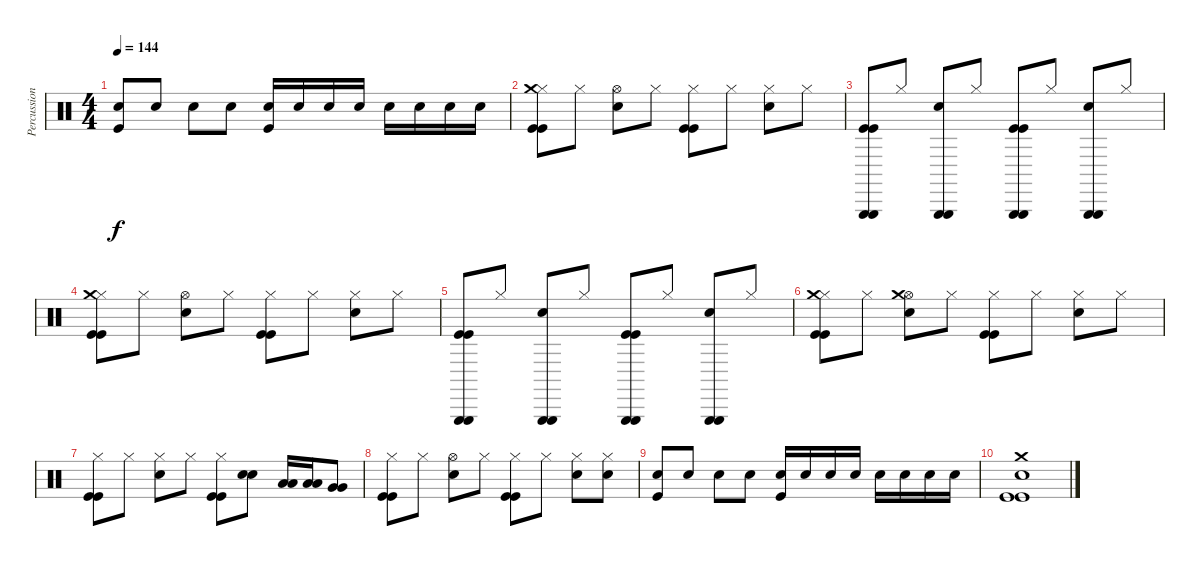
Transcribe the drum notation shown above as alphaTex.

\track ("Percussion" "Percussion") {instrument percussion}
\staff {score}
\articulation defaults
\ts (4 4)
\tempo 144
\clef neutral
\ks c
("Snare (hit) 2" "Kick (hit)").8{dy f} "Snare (hit) 2".8 "Snare (hit) 2".8 "Snare (hit) 2".8 ("Snare (hit) 2" "Kick (hit)").16 "Snare (hit) 2".16 "Snare (hit) 2".16 "Snare (hit) 2".16 "Snare (hit) 2".16 "Snare (hit) 2".16 "Snare (hit) 2".16 "Snare (hit) 2".16 |
("Hi-Hat (closed)" "Kick (hit)" "Kick (hit)" "Crash medium (hit)").8 "Hi-Hat (closed)".8 ("Hi-Hat (open)" "Snare (hit) 2").8 "Hi-Hat (closed)".8 ("Hi-Hat (closed)" "Kick (hit)" "Kick (hit)").8 "Hi-Hat (closed)".8 ("Hi-Hat (closed)" "Snare (hit) 2").8 "Hi-Hat (closed)".8 |
("Triangle (hit)" "Kick (hit)" "Kick (hit)" "Triangle (hit)").8 "Hi-Hat (closed)".8 ("Triangle (hit)" "Snare (hit) 2" "Triangle (hit)").8 "Hi-Hat (closed)".8 ("Triangle (hit)" "Kick (hit)" "Kick (hit)" "Triangle (hit)").8 "Hi-Hat (closed)".8 ("Triangle (hit)" "Snare (hit) 2" "Triangle (hit)").8 "Hi-Hat (closed)".8 |
("Hi-Hat (closed)" "Kick (hit)" "Kick (hit)" "Crash medium (hit)").8 "Hi-Hat (closed)".8 ("Hi-Hat (open)" "Snare (hit) 2").8 "Hi-Hat (closed)".8 ("Hi-Hat (closed)" "Kick (hit)" "Kick (hit)").8 "Hi-Hat (closed)".8 ("Hi-Hat (closed)" "Snare (hit) 2").8 "Hi-Hat (closed)".8 |
("Triangle (hit)" "Kick (hit)" "Kick (hit)" "Triangle (hit)").8 "Hi-Hat (closed)".8 ("Triangle (hit)" "Snare (hit) 2" "Triangle (hit)").8 "Hi-Hat (closed)".8 ("Triangle (hit)" "Kick (hit)" "Kick (hit)" "Triangle (hit)").8 "Hi-Hat (closed)".8 ("Triangle (hit)" "Snare (hit) 2" "Triangle (hit)").8 "Hi-Hat (closed)".8 |
("Hi-Hat (closed)" "Kick (hit)" "Kick (hit)" "Crash medium (hit)").8 "Hi-Hat (closed)".8 ("Hi-Hat (open)" "Snare (hit) 2" "Crash medium (hit)").8 "Hi-Hat (closed)".8 ("Hi-Hat (closed)" "Kick (hit)" "Kick (hit)").8 "Hi-Hat (closed)".8 ("Hi-Hat (closed)" "Snare (hit) 2").8 "Hi-Hat (closed)".8 |
("Hi-Hat (closed)" "Kick (hit)" "Kick (hit)").8 "Hi-Hat (closed)".8 ("Hi-Hat (closed)" "Snare (hit) 2").8 "Hi-Hat (closed)".8 ("Hi-Hat (closed)" "Kick (hit)" "Kick (hit)").8 ("Snare (hit) 2" "Snare (hit) 2").8 ("Low Floor Tom (hit)" "Low Floor Tom (hit)").16 ("Low Floor Tom (hit)" "Low Floor Tom (hit)").16 ("Very Low Tom (hit)" "Very Low Tom (hit)").8 |
("Hi-Hat (closed)" "Kick (hit)" "Kick (hit)").8 "Hi-Hat (closed)".8 ("Hi-Hat (open)" "Snare (hit) 2").8 "Hi-Hat (closed)".8 ("Hi-Hat (closed)" "Kick (hit)" "Kick (hit)").8 "Hi-Hat (closed)".8 ("Hi-Hat (closed)" "Snare (hit) 2").8 ("Hi-Hat (closed)" "Snare (hit) 2").8 |
("Snare (hit) 2" "Kick (hit)").8 "Snare (hit) 2".8 "Snare (hit) 2".8 "Snare (hit) 2".8 ("Snare (hit) 2" "Kick (hit)").16 "Snare (hit) 2".16 "Snare (hit) 2".16 "Snare (hit) 2".16 "Snare (hit) 2".16 "Snare (hit) 2".16 "Snare (hit) 2".16 "Snare (hit) 2".16 |
("Kick (hit)" "Kick (hit)" "Snare (hit) 2" "Crash medium (hit)").1
